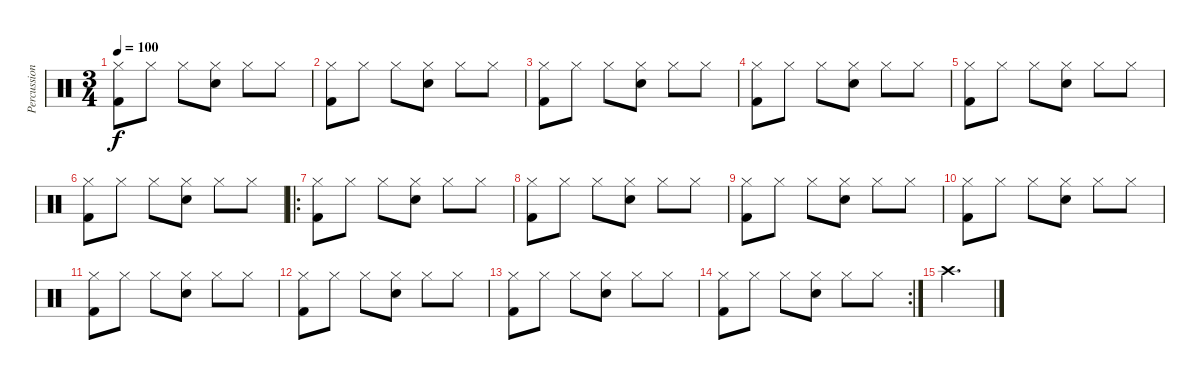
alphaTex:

\track ("Percussion" "Percussion") {instrument percussion}
\staff {score}
\articulation defaults
\ts (3 4)
\tempo 100
\clef neutral
\ks c
("Hi-Hat (closed)" "Kick (hit) 2").8{dy f} "Hi-Hat (closed)".8 "Hi-Hat (closed)".8 ("Hi-Hat (closed)" "Snare (hit) 2").8 "Hi-Hat (closed)".8 "Hi-Hat (closed)".8 |
("Hi-Hat (closed)" "Kick (hit) 2").8 "Hi-Hat (closed)".8 "Hi-Hat (closed)".8 ("Hi-Hat (closed)" "Snare (hit) 2").8 "Hi-Hat (closed)".8 "Hi-Hat (closed)".8 |
("Hi-Hat (closed)" "Kick (hit) 2").8 "Hi-Hat (closed)".8 "Hi-Hat (closed)".8 ("Hi-Hat (closed)" "Snare (hit) 2").8 "Hi-Hat (closed)".8 "Hi-Hat (closed)".8 |
("Hi-Hat (closed)" "Kick (hit) 2").8 "Hi-Hat (closed)".8 "Hi-Hat (closed)".8 ("Hi-Hat (closed)" "Snare (hit) 2").8 "Hi-Hat (closed)".8 "Hi-Hat (closed)".8 |
("Hi-Hat (closed)" "Kick (hit) 2").8 "Hi-Hat (closed)".8 "Hi-Hat (closed)".8 ("Hi-Hat (closed)" "Snare (hit) 2").8 "Hi-Hat (closed)".8 "Hi-Hat (closed)".8 |
("Hi-Hat (closed)" "Kick (hit) 2").8 "Hi-Hat (closed)".8 "Hi-Hat (closed)".8 ("Hi-Hat (closed)" "Snare (hit) 2").8 "Hi-Hat (closed)".8 "Hi-Hat (closed)".8 |
\ro
("Hi-Hat (closed)" "Kick (hit) 2").8 "Hi-Hat (closed)".8 "Hi-Hat (closed)".8 ("Hi-Hat (closed)" "Snare (hit) 2").8 "Hi-Hat (closed)".8 "Hi-Hat (closed)".8 |
("Hi-Hat (closed)" "Kick (hit) 2").8 "Hi-Hat (closed)".8 "Hi-Hat (closed)".8 ("Hi-Hat (closed)" "Snare (hit) 2").8 "Hi-Hat (closed)".8 "Hi-Hat (closed)".8 |
("Hi-Hat (closed)" "Kick (hit) 2").8 "Hi-Hat (closed)".8 "Hi-Hat (closed)".8 ("Hi-Hat (closed)" "Snare (hit) 2").8 "Hi-Hat (closed)".8 "Hi-Hat (closed)".8 |
("Hi-Hat (closed)" "Kick (hit) 2").8 "Hi-Hat (closed)".8 "Hi-Hat (closed)".8 ("Hi-Hat (closed)" "Snare (hit) 2").8 "Hi-Hat (closed)".8 "Hi-Hat (closed)".8 |
("Hi-Hat (closed)" "Kick (hit) 2").8 "Hi-Hat (closed)".8 "Hi-Hat (closed)".8 ("Hi-Hat (closed)" "Snare (hit) 2").8 "Hi-Hat (closed)".8 "Hi-Hat (closed)".8 |
("Hi-Hat (closed)" "Kick (hit) 2").8 "Hi-Hat (closed)".8 "Hi-Hat (closed)".8 ("Hi-Hat (closed)" "Snare (hit) 2").8 "Hi-Hat (closed)".8 "Hi-Hat (closed)".8 |
("Hi-Hat (closed)" "Kick (hit) 2").8 "Hi-Hat (closed)".8 "Hi-Hat (closed)".8 ("Hi-Hat (closed)" "Snare (hit) 2").8 "Hi-Hat (closed)".8 "Hi-Hat (closed)".8 |
\rc 2
("Hi-Hat (closed)" "Kick (hit) 2").8 "Hi-Hat (closed)".8 "Hi-Hat (closed)".8 ("Hi-Hat (closed)" "Snare (hit) 2").8 "Hi-Hat (closed)".8 "Hi-Hat (closed)".8 |
"Crash high (hit)".2{d}
